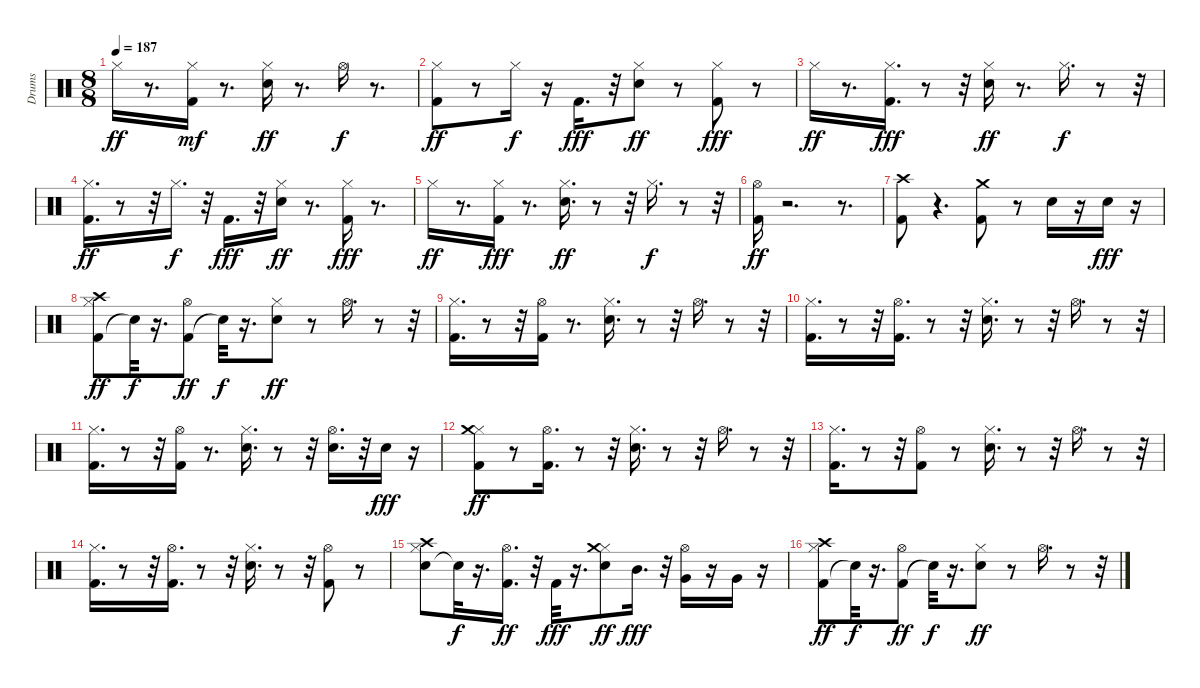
\track ("Drums" "Drums") {instrument percussion}
\staff {score}
\articulation defaults
\ts (8 8)
\tempo 187
\clef neutral
\ks c "Hi-Hat (closed)".16{dy ff}
r.8{d} ("Kick (hit) 2" "Hi-Hat (closed)").16{dy mf} r.8{d} ("Snare (hit) 2" "Hi-Hat (closed)").16{dy ff} r.8{d} "Hi-Hat (open)".16{dy f} r.8{d} |
("Kick (hit) 2" "Hi-Hat (closed)").8{dy ff} r.8 "Hi-Hat (closed)".16{dy f} r.16 "Kick (hit) 2".16{d dy fff} r.32 ("Snare (hit) 2" "Hi-Hat (closed)").8{dy ff} r.8 ("Kick (hit) 2" "Hi-Hat (closed)").8{dy fff} r.8 |
"Hi-Hat (closed)".16{dy ff} r.8{d} ("Kick (hit) 2" "Hi-Hat (closed)").16{d dy fff} r.8 r.32 ("Snare (hit) 2" "Hi-Hat (closed)").16{dy ff} r.8{d} "Hi-Hat (closed)".16{d dy f} r.8 r.32 |
("Kick (hit) 2" "Hi-Hat (closed)").16{d dy ff} r.8 r.32 "Hi-Hat (closed)".16{d dy f} r.32 "Kick (hit) 2".16{d dy fff} r.32 ("Snare (hit) 2" "Hi-Hat (closed)").16{dy ff} r.8{d} ("Kick (hit) 2" "Hi-Hat (closed)").16{dy fff} r.8{d} |
"Hi-Hat (closed)".16{dy ff} r.8{d} ("Kick (hit) 2" "Hi-Hat (closed)").16{dy fff} r.8{d} ("Snare (hit) 2" "Hi-Hat (closed)").16{d dy ff} r.8 r.32 "Hi-Hat (closed)".16{d dy f} r.8 r.32 |
("Kick (hit) 2" "Hi-Hat (open)").16{dy ff} r.2{d} r.8{d} |
("Kick (hit) 2" "Crash high (hit)").8 r.4{d} ("Kick (hit) 2" "Crash medium (hit)").8 r.8 "Snare (hit) 2".16 r.16 "Snare (hit) 2".16{dy fff} r.16 |
("Kick (hit) 2" "Hi-Hat (closed)" "Crash high (hit)").8{dy ff} "Snare (hit)"{t}.32{dy f} r.16{d} ("Kick (hit) 2" "Hi-Hat (open)").8{dy ff} "Snare (hit)"{t}.32{dy f} r.16{d} ("Snare (hit) 2" "Hi-Hat (closed)").8{dy ff} r.8 "Hi-Hat (open)".16{d} r.8 r.32 |
("Kick (hit) 2" "Hi-Hat (closed)").16{d} r.8 r.32 ("Kick (hit) 2" "Hi-Hat (open)").16 r.8{d} ("Snare (hit) 2" "Hi-Hat (closed)").16{d} r.8 r.32 "Hi-Hat (open)".16{d} r.8 r.32 |
("Kick (hit) 2" "Hi-Hat (closed)").16{d} r.8 r.32 ("Kick (hit) 2" "Hi-Hat (open)").16{d} r.8 r.32 ("Snare (hit) 2" "Hi-Hat (closed)").16{d} r.8 r.32 "Hi-Hat (open)".16{d} r.8 r.32 |
("Kick (hit) 2" "Hi-Hat (closed)").16{d} r.8 r.32 ("Kick (hit) 2" "Hi-Hat (open)").16 r.8{d} ("Snare (hit) 2" "Hi-Hat (closed)").16{d} r.8 r.32 ("Snare (hit) 2" "Hi-Hat (open)").16{d} r.32 "Snare (hit) 2".16{dy fff} r.16 |
("Kick (hit) 2" "Hi-Hat (closed)" "Crash medium (hit)").8{dy ff} r.8 ("Kick (hit) 2" "Hi-Hat (open)").16{d} r.8 r.32 ("Snare (hit) 2" "Hi-Hat (closed)").16{d} r.8 r.32 "Hi-Hat (open)".16{d} r.8 r.32 |
("Kick (hit) 2" "Hi-Hat (closed)").16{d} r.8 r.32 ("Kick (hit) 2" "Hi-Hat (open)").8 r.8 ("Snare (hit) 2" "Hi-Hat (closed)").16{d} r.8 r.32 "Hi-Hat (open)".16{d} r.8 r.32 |
("Kick (hit) 2" "Hi-Hat (closed)").16{d} r.8 r.32 ("Kick (hit) 2" "Hi-Hat (open)").16{d} r.8 r.32 ("Snare (hit) 2" "Hi-Hat (closed)").16{d} r.8 r.32 ("Kick (hit) 2" "Hi-Hat (open)").8 r.8 |
("Snare (hit) 2" "Hi-Hat (closed)" "Crash high (hit)").8 "Snare (hit)"{t}.32{dy f} r.16{d} ("Kick (hit) 2" "Hi-Hat (open)").16{d dy ff} r.32 "Kick (hit) 2".32{dy fff} r.16{d} ("Snare (hit) 2" "Hi-Hat (closed)" "Crash medium (hit)").8{dy ff} "Mid Tom (hit)".16{d dy fff} r.32 ("Hi-Hat (open)" "Very Low Tom (hit)").16 r.16 "Very Low Tom (hit)".16 r.16 |
("Kick (hit) 2" "Hi-Hat (closed)" "Crash high (hit)").8{dy ff} "Snare (hit)"{t}.32{dy f} r.16{d} ("Kick (hit) 2" "Hi-Hat (open)").8{dy ff} "Snare (hit)"{t}.32{dy f} r.16{d} ("Snare (hit) 2" "Hi-Hat (closed)").8{dy ff} r.8 "Hi-Hat (open)".16{d} r.8 r.32
